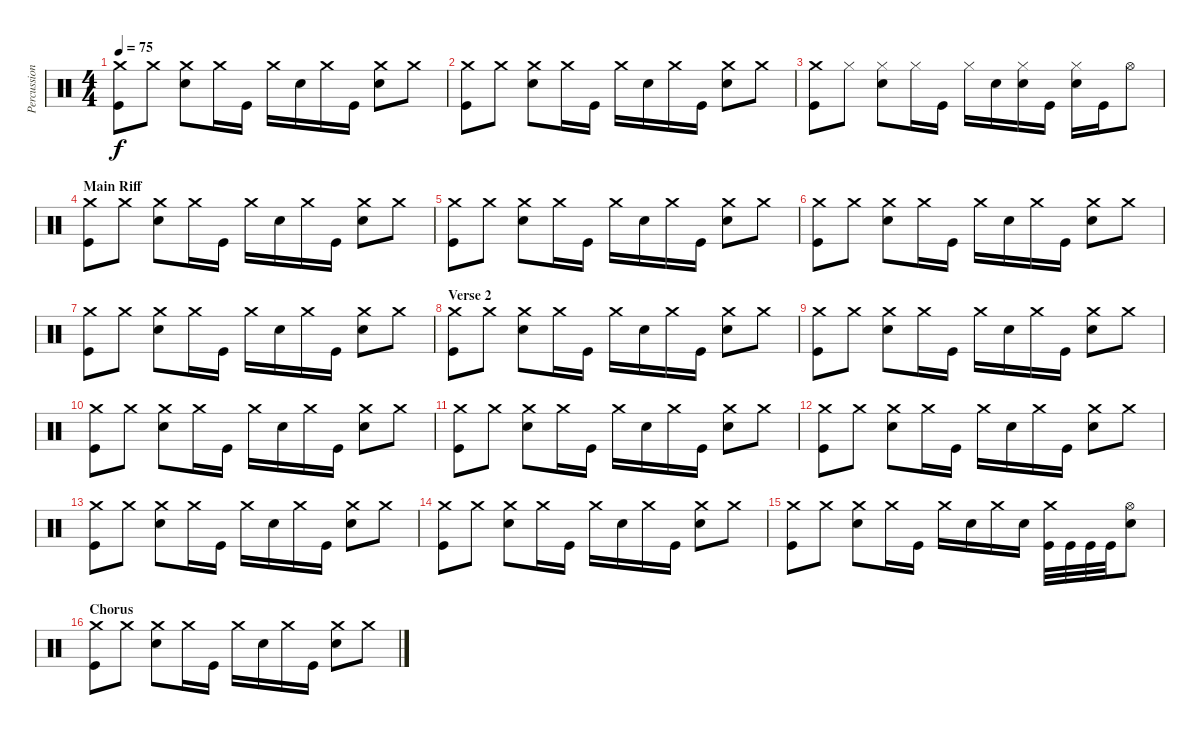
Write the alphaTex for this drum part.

\track ("Percussion" "Percussion") {instrument percussion}
\staff {score}
\articulation defaults
\ts (4 4)
\tempo 75
\clef neutral
\ks c
("Crash medium (hit)" "Kick (hit)").8{dy f} "Crash medium (hit)".8 ("Crash medium (hit)" "Snare (hit) 2").8 "Crash medium (hit)".16 "Kick (hit)".16 "Crash medium (hit)".16 "Snare (hit) 2".16 "Crash medium (hit)".16 "Kick (hit)".16 ("Crash medium (hit)" "Snare (hit) 2").8 "Crash medium (hit)".8 |
("Crash medium (hit)" "Kick (hit)").8 "Crash medium (hit)".8 ("Crash medium (hit)" "Snare (hit) 2").8 "Crash medium (hit)".16 "Kick (hit)".16 "Crash medium (hit)".16 "Snare (hit) 2".16 "Crash medium (hit)".16 "Kick (hit)".16 ("Crash medium (hit)" "Snare (hit) 2").8 "Crash medium (hit)".8 |
("Crash medium (hit)" "Kick (hit)").8 "Hi-Hat (closed)".8 ("Hi-Hat (closed)" "Snare (hit) 2").8 "Hi-Hat (closed)".16 "Kick (hit)".16 "Hi-Hat (closed)".16 "Snare (hit) 2".16 ("Hi-Hat (closed)" "Snare (hit) 2").16 "Kick (hit)".16 ("Hi-Hat (closed)" "Snare (hit) 2").16 "Kick (hit)".16 "Hi-Hat (open)".8 |
\section ("" "Main Riff")
("Crash medium (hit)" "Kick (hit)").8 "Crash medium (hit)".8 ("Crash medium (hit)" "Snare (hit) 2").8 "Crash medium (hit)".16 "Kick (hit)".16 "Crash medium (hit)".16 "Snare (hit) 2".16 "Crash medium (hit)".16 "Kick (hit)".16 ("Crash medium (hit)" "Snare (hit) 2").8 "Crash medium (hit)".8 |
("Crash medium (hit)" "Kick (hit)").8 "Crash medium (hit)".8 ("Crash medium (hit)" "Snare (hit) 2").8 "Crash medium (hit)".16 "Kick (hit)".16 "Crash medium (hit)".16 "Snare (hit) 2".16 "Crash medium (hit)".16 "Kick (hit)".16 ("Crash medium (hit)" "Snare (hit) 2").8 "Crash medium (hit)".8 |
("Crash medium (hit)" "Kick (hit)").8 "Crash medium (hit)".8 ("Crash medium (hit)" "Snare (hit) 2").8 "Crash medium (hit)".16 "Kick (hit)".16 "Crash medium (hit)".16 "Snare (hit) 2".16 "Crash medium (hit)".16 "Kick (hit)".16 ("Crash medium (hit)" "Snare (hit) 2").8 "Crash medium (hit)".8 |
("Crash medium (hit)" "Kick (hit)").8 "Crash medium (hit)".8 ("Crash medium (hit)" "Snare (hit) 2").8 "Crash medium (hit)".16 "Kick (hit)".16 "Crash medium (hit)".16 "Snare (hit) 2".16 "Crash medium (hit)".16 "Kick (hit)".16 ("Crash medium (hit)" "Snare (hit) 2").8 "Crash medium (hit)".8 |
\section ("" "Verse 2")
("Crash medium (hit)" "Kick (hit)").8 "Crash medium (hit)".8 ("Crash medium (hit)" "Snare (hit) 2").8 "Crash medium (hit)".16 "Kick (hit)".16 "Crash medium (hit)".16 "Snare (hit) 2".16 "Crash medium (hit)".16 "Kick (hit)".16 ("Crash medium (hit)" "Snare (hit) 2").8 "Crash medium (hit)".8 |
("Crash medium (hit)" "Kick (hit)").8 "Crash medium (hit)".8 ("Crash medium (hit)" "Snare (hit) 2").8 "Crash medium (hit)".16 "Kick (hit)".16 "Crash medium (hit)".16 "Snare (hit) 2".16 "Crash medium (hit)".16 "Kick (hit)".16 ("Crash medium (hit)" "Snare (hit) 2").8 "Crash medium (hit)".8 |
("Crash medium (hit)" "Kick (hit)").8 "Crash medium (hit)".8 ("Crash medium (hit)" "Snare (hit) 2").8 "Crash medium (hit)".16 "Kick (hit)".16 "Crash medium (hit)".16 "Snare (hit) 2".16 "Crash medium (hit)".16 "Kick (hit)".16 ("Crash medium (hit)" "Snare (hit) 2").8 "Crash medium (hit)".8 |
("Crash medium (hit)" "Kick (hit)").8 "Crash medium (hit)".8 ("Crash medium (hit)" "Snare (hit) 2").8 "Crash medium (hit)".16 "Kick (hit)".16 "Crash medium (hit)".16 "Snare (hit) 2".16 "Crash medium (hit)".16 "Kick (hit)".16 ("Crash medium (hit)" "Snare (hit) 2").8 "Crash medium (hit)".8 |
("Crash medium (hit)" "Kick (hit)").8 "Crash medium (hit)".8 ("Crash medium (hit)" "Snare (hit) 2").8 "Crash medium (hit)".16 "Kick (hit)".16 "Crash medium (hit)".16 "Snare (hit) 2".16 "Crash medium (hit)".16 "Kick (hit)".16 ("Crash medium (hit)" "Snare (hit) 2").8 "Crash medium (hit)".8 |
("Crash medium (hit)" "Kick (hit)").8 "Crash medium (hit)".8 ("Crash medium (hit)" "Snare (hit) 2").8 "Crash medium (hit)".16 "Kick (hit)".16 "Crash medium (hit)".16 "Snare (hit) 2".16 "Crash medium (hit)".16 "Kick (hit)".16 ("Crash medium (hit)" "Snare (hit) 2").8 "Crash medium (hit)".8 |
("Crash medium (hit)" "Kick (hit)").8 "Crash medium (hit)".8 ("Crash medium (hit)" "Snare (hit) 2").8 "Crash medium (hit)".16 "Kick (hit)".16 "Crash medium (hit)".16 "Snare (hit) 2".16 "Crash medium (hit)".16 "Kick (hit)".16 ("Crash medium (hit)" "Snare (hit) 2").8 "Crash medium (hit)".8 |
("Crash medium (hit)" "Kick (hit)").8 "Crash medium (hit)".8 ("Crash medium (hit)" "Snare (hit) 2").8 "Crash medium (hit)".16 "Kick (hit)".16 "Crash medium (hit)".16 "Snare (hit) 2".16 "Crash medium (hit)".16 "Snare (hit) 2".16 ("Crash medium (hit)" "Kick (hit)").32 "Kick (hit)".32 "Kick (hit)".32 "Kick (hit)".32 ("Hi-Hat (open)" "Snare (hit) 2").8 |
\section ("" "Chorus")
("Crash medium (hit)" "Kick (hit)").8 "Crash medium (hit)".8 ("Crash medium (hit)" "Snare (hit) 2").8 "Crash medium (hit)".16 "Kick (hit)".16 "Crash medium (hit)".16 "Snare (hit) 2".16 "Crash medium (hit)".16 "Kick (hit)".16 ("Crash medium (hit)" "Snare (hit) 2").8 "Crash medium (hit)".8
